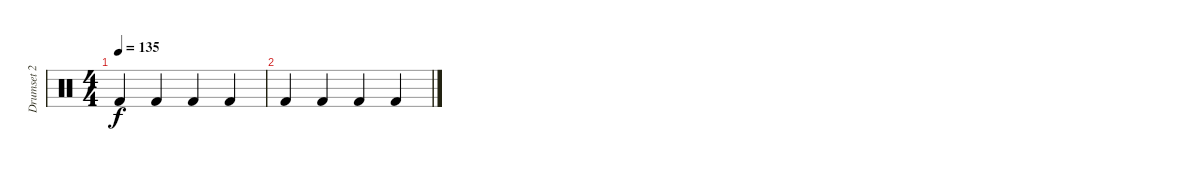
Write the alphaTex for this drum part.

\track ("Drumset 2" "Drumset 2") {instrument percussion}
\staff {score}
\articulation defaults
\ts (4 4)
\tempo 135
\clef neutral
\ks c "Kick (hit) 2".4{dy f} "Kick (hit) 2".4 "Kick (hit) 2".4 "Kick (hit) 2".4
|
"Kick (hit) 2".4 "Kick (hit) 2".4 "Kick (hit) 2".4 "Kick (hit) 2".4
